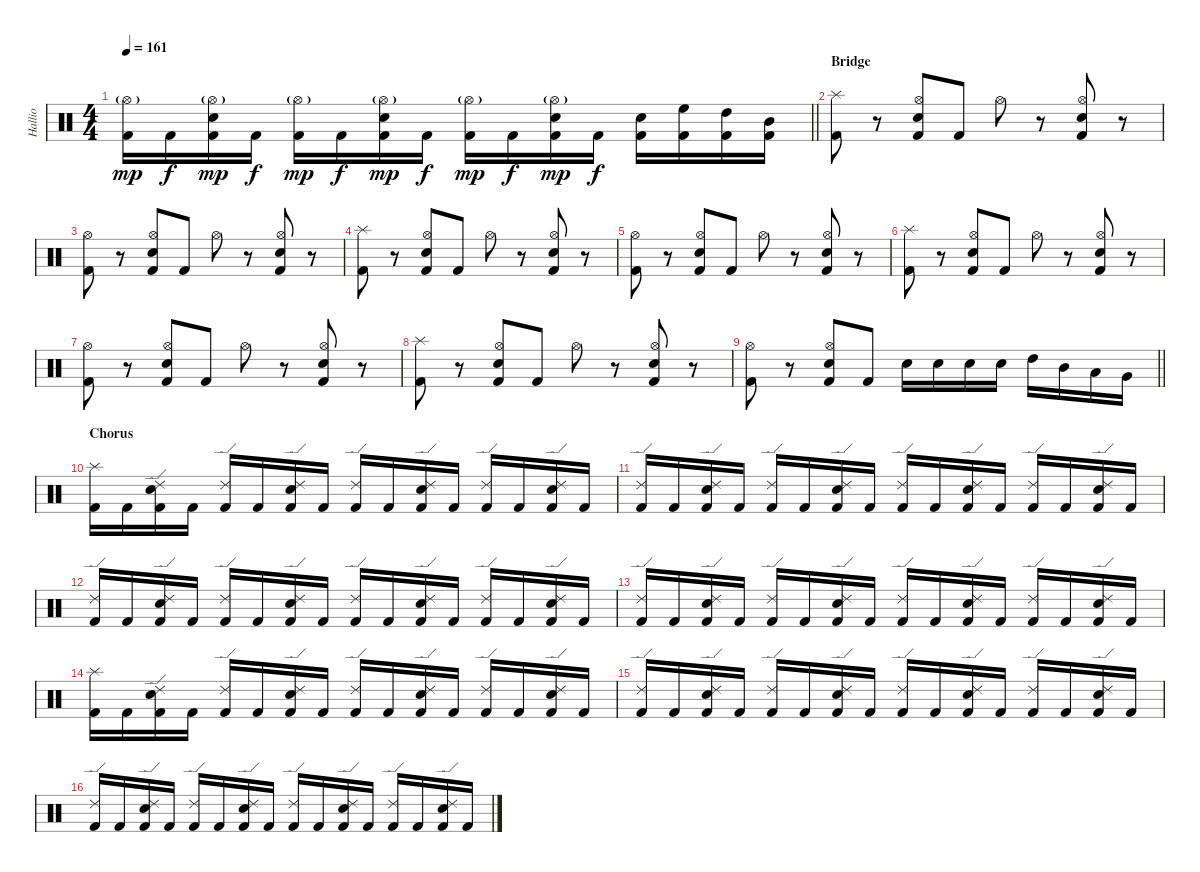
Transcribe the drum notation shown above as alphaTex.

\track ("Hallio" "Hallio") {instrument percussion}
\staff {score}
\articulation defaults
\ts (4 4)
\tempo 161
\clef neutral
\barLineRight lightlight
\ks c
("Kick (hit) 2" "Hi-Hat (open)"{g}).16{dy mp} "Kick (hit) 2".16{dy f} ("Kick (hit) 2" "Snare (hit) 2" "Hi-Hat (open)"{g}).16{dy mp} "Kick (hit) 2".16{dy f} ("Kick (hit) 2" "Hi-Hat (open)"{g}).16{dy mp} "Kick (hit) 2".16{dy f} ("Kick (hit) 2" "Snare (hit) 2" "Hi-Hat (open)"{g}).16{dy mp} "Kick (hit) 2".16{dy f} ("Kick (hit) 2" "Hi-Hat (open)"{g}).16{dy mp} "Kick (hit) 2".16{dy f} ("Kick (hit) 2" "Snare (hit) 2" "Hi-Hat (open)"{g}).16{dy mp} "Kick (hit) 2".16{dy f} ("Kick (hit) 2" "Snare (hit) 2").16 ("Kick (hit) 2" "High Floor Tom (hit)").16 ("Kick (hit) 2" "High Tom (hit)").16 ("Kick (hit) 2" "Mid Tom (hit)").16 |
\section ("" "Bridge")
("Kick (hit) 2" "Splash (hit)").8 r.8 ("Kick (hit) 2" "Hi-Hat (open)" "Snare (hit) 2").8 "Kick (hit) 2".8 "Hi-Hat (open)".8 r.8 ("Kick (hit) 2" "Hi-Hat (open)" "Snare (hit) 2").8 r.8 |
("Kick (hit) 2" "Hi-Hat (open)").8 r.8 ("Kick (hit) 2" "Hi-Hat (open)" "Snare (hit) 2").8 "Kick (hit) 2".8 "Hi-Hat (open)".8 r.8 ("Kick (hit) 2" "Hi-Hat (open)" "Snare (hit) 2").8 r.8 |
("Kick (hit) 2" "Splash (hit)").8 r.8 ("Kick (hit) 2" "Hi-Hat (open)" "Snare (hit) 2").8 "Kick (hit) 2".8 "Hi-Hat (open)".8 r.8 ("Kick (hit) 2" "Hi-Hat (open)" "Snare (hit) 2").8 r.8 |
("Kick (hit) 2" "Hi-Hat (open)").8 r.8 ("Kick (hit) 2" "Hi-Hat (open)" "Snare (hit) 2").8 "Kick (hit) 2".8 "Hi-Hat (open)".8 r.8 ("Kick (hit) 2" "Hi-Hat (open)" "Snare (hit) 2").8 r.8 |
("Kick (hit) 2" "Splash (hit)").8 r.8 ("Kick (hit) 2" "Hi-Hat (open)" "Snare (hit) 2").8 "Kick (hit) 2".8 "Hi-Hat (open)".8 r.8 ("Kick (hit) 2" "Hi-Hat (open)" "Snare (hit) 2").8 r.8 |
("Kick (hit) 2" "Hi-Hat (open)").8 r.8 ("Kick (hit) 2" "Hi-Hat (open)" "Snare (hit) 2").8 "Kick (hit) 2".8 "Hi-Hat (open)".8 r.8 ("Kick (hit) 2" "Hi-Hat (open)" "Snare (hit) 2").8 r.8 |
("Kick (hit) 2" "Splash (hit)").8 r.8 ("Kick (hit) 2" "Hi-Hat (open)" "Snare (hit) 2").8 "Kick (hit) 2".8 "Hi-Hat (open)".8 r.8 ("Kick (hit) 2" "Hi-Hat (open)" "Snare (hit) 2").8 r.8 |
\barLineRight lightlight
("Kick (hit) 2" "Hi-Hat (open)").8 r.8 ("Kick (hit) 2" "Hi-Hat (open)" "Snare (hit) 2").8 "Kick (hit) 2".8 "Snare (hit) 2".16 "Snare (hit) 2".16 "Snare (hit) 2".16 "Snare (hit) 2".16 "High Tom (hit)".16 "Mid Tom (hit)".16 "Low Tom (hit)".16 "Very Low Tom (hit)".16 |
\section ("" "Chorus")
("Kick (hit) 2" "Splash (hit)").16 "Kick (hit) 2".16 ("Kick (hit) 2" "Snare (hit) 2" "Ride (edge) 2").16 "Kick (hit) 2".16 ("Kick (hit) 2" "Ride (edge) 2").16 "Kick (hit) 2".16 ("Kick (hit) 2" "Snare (hit) 2" "Ride (edge) 2").16 "Kick (hit) 2".16 ("Kick (hit) 2" "Ride (edge) 2").16 "Kick (hit) 2".16 ("Kick (hit) 2" "Snare (hit) 2" "Ride (edge) 2").16 "Kick (hit) 2".16 ("Kick (hit) 2" "Ride (edge) 2").16 "Kick (hit) 2".16 ("Kick (hit) 2" "Snare (hit) 2" "Ride (edge) 2").16 "Kick (hit) 2".16 |
("Kick (hit) 2" "Ride (edge) 2").16 "Kick (hit) 2".16 ("Kick (hit) 2" "Snare (hit) 2" "Ride (edge) 2").16 "Kick (hit) 2".16 ("Kick (hit) 2" "Ride (edge) 2").16 "Kick (hit) 2".16 ("Kick (hit) 2" "Snare (hit) 2" "Ride (edge) 2").16 "Kick (hit) 2".16 ("Kick (hit) 2" "Ride (edge) 2").16 "Kick (hit) 2".16 ("Kick (hit) 2" "Snare (hit) 2" "Ride (edge) 2").16 "Kick (hit) 2".16 ("Kick (hit) 2" "Ride (edge) 2").16 "Kick (hit) 2".16 ("Kick (hit) 2" "Snare (hit) 2" "Ride (edge) 2").16 "Kick (hit) 2".16 |
("Kick (hit) 2" "Ride (edge) 2").16 "Kick (hit) 2".16 ("Kick (hit) 2" "Snare (hit) 2" "Ride (edge) 2").16 "Kick (hit) 2".16 ("Kick (hit) 2" "Ride (edge) 2").16 "Kick (hit) 2".16 ("Kick (hit) 2" "Snare (hit) 2" "Ride (edge) 2").16 "Kick (hit) 2".16 ("Kick (hit) 2" "Ride (edge) 2").16 "Kick (hit) 2".16 ("Kick (hit) 2" "Snare (hit) 2" "Ride (edge) 2").16 "Kick (hit) 2".16 ("Kick (hit) 2" "Ride (edge) 2").16 "Kick (hit) 2".16 ("Kick (hit) 2" "Snare (hit) 2" "Ride (edge) 2").16 "Kick (hit) 2".16 |
("Kick (hit) 2" "Ride (edge) 2").16 "Kick (hit) 2".16 ("Kick (hit) 2" "Snare (hit) 2" "Ride (edge) 2").16 "Kick (hit) 2".16 ("Kick (hit) 2" "Ride (edge) 2").16 "Kick (hit) 2".16 ("Kick (hit) 2" "Snare (hit) 2" "Ride (edge) 2").16 "Kick (hit) 2".16 ("Kick (hit) 2" "Ride (edge) 2").16 "Kick (hit) 2".16 ("Kick (hit) 2" "Snare (hit) 2" "Ride (edge) 2").16 "Kick (hit) 2".16 ("Kick (hit) 2" "Ride (edge) 2").16 "Kick (hit) 2".16 ("Kick (hit) 2" "Snare (hit) 2" "Ride (edge) 2").16 "Kick (hit) 2".16 |
("Kick (hit) 2" "Splash (hit)").16 "Kick (hit) 2".16 ("Kick (hit) 2" "Snare (hit) 2" "Ride (edge) 2").16 "Kick (hit) 2".16 ("Kick (hit) 2" "Ride (edge) 2").16 "Kick (hit) 2".16 ("Kick (hit) 2" "Snare (hit) 2" "Ride (edge) 2").16 "Kick (hit) 2".16 ("Kick (hit) 2" "Ride (edge) 2").16 "Kick (hit) 2".16 ("Kick (hit) 2" "Snare (hit) 2" "Ride (edge) 2").16 "Kick (hit) 2".16 ("Kick (hit) 2" "Ride (edge) 2").16 "Kick (hit) 2".16 ("Kick (hit) 2" "Snare (hit) 2" "Ride (edge) 2").16 "Kick (hit) 2".16 |
("Kick (hit) 2" "Ride (edge) 2").16 "Kick (hit) 2".16 ("Kick (hit) 2" "Snare (hit) 2" "Ride (edge) 2").16 "Kick (hit) 2".16 ("Kick (hit) 2" "Ride (edge) 2").16 "Kick (hit) 2".16 ("Kick (hit) 2" "Snare (hit) 2" "Ride (edge) 2").16 "Kick (hit) 2".16 ("Kick (hit) 2" "Ride (edge) 2").16 "Kick (hit) 2".16 ("Kick (hit) 2" "Snare (hit) 2" "Ride (edge) 2").16 "Kick (hit) 2".16 ("Kick (hit) 2" "Ride (edge) 2").16 "Kick (hit) 2".16 ("Kick (hit) 2" "Snare (hit) 2" "Ride (edge) 2").16 "Kick (hit) 2".16 |
("Kick (hit) 2" "Ride (edge) 2").16 "Kick (hit) 2".16 ("Kick (hit) 2" "Snare (hit) 2" "Ride (edge) 2").16 "Kick (hit) 2".16 ("Kick (hit) 2" "Ride (edge) 2").16 "Kick (hit) 2".16 ("Kick (hit) 2" "Snare (hit) 2" "Ride (edge) 2").16 "Kick (hit) 2".16 ("Kick (hit) 2" "Ride (edge) 2").16 "Kick (hit) 2".16 ("Kick (hit) 2" "Snare (hit) 2" "Ride (edge) 2").16 "Kick (hit) 2".16 ("Kick (hit) 2" "Ride (edge) 2").16 "Kick (hit) 2".16 ("Kick (hit) 2" "Snare (hit) 2" "Ride (edge) 2").16 "Kick (hit) 2".16
